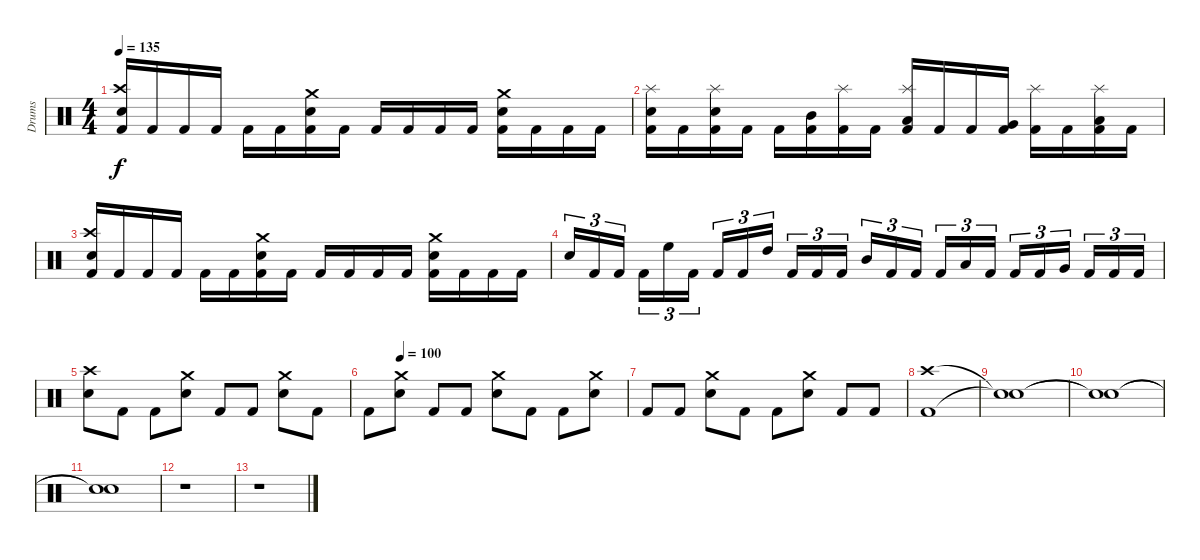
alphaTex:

\track ("Drums" "Drums") {instrument percussion}
\staff {score}
\articulation defaults
\ts (4 4)
\tempo 135
\clef neutral
\ks c
("Kick (hit) 2" "Crash high (hit)" "Electric Snare (hit)").16{dy f} "Kick (hit) 2".16 "Kick (hit) 2".16 "Kick (hit) 2".16 "Kick (hit) 2".16 "Kick (hit) 2".16 ("Kick (hit) 2" "Crash medium (hit)" "Electric Snare (hit)").16 "Kick (hit) 2".16 "Kick (hit) 2".16 "Kick (hit) 2".16 "Kick (hit) 2".16 "Kick (hit) 2".16 ("Kick (hit) 2" "Crash medium (hit)" "Electric Snare (hit)").16 "Kick (hit) 2".16 "Kick (hit) 2".16 "Kick (hit) 2".16 |
("Kick (hit) 2" "Splash (hit)" "Electric Snare (hit)").16 "Kick (hit) 2".16 ("Kick (hit) 2" "Splash (hit)" "Electric Snare (hit)").16 "Kick (hit) 2".16 "Kick (hit) 2".16 ("Kick (hit) 2" "Mid Tom (hit)").16 ("Kick (hit) 2" "Splash (hit)").16 "Kick (hit) 2".16 ("Kick (hit) 2" "Splash (hit)" "Low Tom (hit)").16 "Kick (hit) 2".16 "Kick (hit) 2".16 ("Kick (hit) 2" "Very Low Tom (hit)").16 ("Kick (hit) 2" "Splash (hit)").16 "Kick (hit) 2".16 ("Kick (hit) 2" "Low Floor Tom (hit)" "Splash (hit)").16 "Kick (hit) 2".16 |
("Kick (hit) 2" "Crash high (hit)" "Electric Snare (hit)").16 "Kick (hit) 2".16 "Kick (hit) 2".16 "Kick (hit) 2".16 "Kick (hit) 2".16 "Kick (hit) 2".16 ("Kick (hit) 2" "Crash medium (hit)" "Electric Snare (hit)").16 "Kick (hit) 2".16 "Kick (hit) 2".16 "Kick (hit) 2".16 "Kick (hit) 2".16 "Kick (hit) 2".16 ("Kick (hit) 2" "Crash medium (hit)" "Electric Snare (hit)").16 "Kick (hit) 2".16 "Kick (hit) 2".16 "Kick (hit) 2".16 |
"Electric Snare (hit)".16{tu (3 2)} "Kick (hit) 2".16{tu (3 2)} "Kick (hit) 2".16{tu (3 2) beam splitsecondary} "Kick (hit) 2".16{tu (3 2)} "High Floor Tom (hit)".16{tu (3 2)} "Kick (hit) 2".16{tu (3 2)} "Kick (hit) 2".16{tu (3 2)} "Kick (hit) 2".16{tu (3 2)} "High Tom (hit)".16{tu (3 2) beam splitsecondary} "Kick (hit) 2".16{tu (3 2)} "Kick (hit) 2".16{tu (3 2)} "Kick (hit) 2".16{tu (3 2)} "Mid Tom (hit)".16{tu (3 2)} "Kick (hit) 2".16{tu (3 2)} "Kick (hit) 2".16{tu (3 2) beam splitsecondary} "Kick (hit) 2".16{tu (3 2)} "Low Tom (hit)".16{tu (3 2)} "Kick (hit) 2".16{tu (3 2)} "Kick (hit) 2".16{tu (3 2)} "Kick (hit) 2".16{tu (3 2)} "Very Low Tom (hit)".16{tu (3 2) beam splitsecondary} "Kick (hit) 2".16{tu (3 2)} "Kick (hit) 2".16{tu (3 2)} "Kick (hit) 2".16{tu (3 2)} |
("Crash high (hit)" "Electric Snare (hit)").8 "Kick (hit) 2".8 "Kick (hit) 2".8 ("Crash medium (hit)" "Electric Snare (hit)").8 "Kick (hit) 2".8 "Kick (hit) 2".8 ("Crash medium (hit)" "Electric Snare (hit)").8 "Kick (hit) 2".8 |
\tempo (100 0.125)
"Kick (hit) 2".8 ("Crash medium (hit)" "Electric Snare (hit)").8 "Kick (hit) 2".8 "Kick (hit) 2".8 ("Crash medium (hit)" "Electric Snare (hit)").8 "Kick (hit) 2".8 "Kick (hit) 2".8 ("Crash medium (hit)" "Electric Snare (hit)").8 |
"Kick (hit) 2".8 "Kick (hit) 2".8 ("Crash medium (hit)" "Electric Snare (hit)").8 "Kick (hit) 2".8 "Kick (hit) 2".8 ("Crash medium (hit)" "Electric Snare (hit)").8 "Kick (hit) 2".8 "Kick (hit) 2".8 |
("Kick (hit) 2" "Crash high (hit)").1 |
("Snare (hit)"{t} "Snare (hit)"{t}).1 |
("Snare (hit)"{t} "Snare (hit)"{t}).1 |
("Snare (hit)"{t} "Snare (hit)"{t}).1 |
r.1 |
r.1
